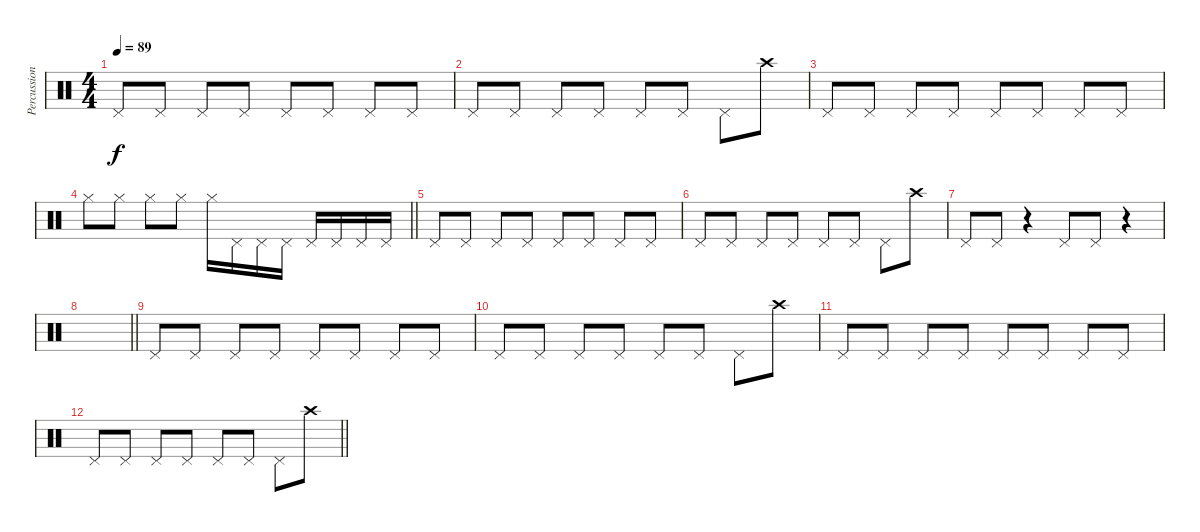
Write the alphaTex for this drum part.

\track ("Percussion" "Percussion") {instrument percussion}
\staff {score}
\articulation defaults
\ts (4 4)
\tempo 89
\clef neutral
\ks c "Pedal Hi-Hat (hit)".8{dy f} "Pedal Hi-Hat (hit)".8 "Pedal Hi-Hat (hit)".8 "Pedal Hi-Hat (hit)".8 "Pedal Hi-Hat (hit)".8 "Pedal Hi-Hat (hit)".8 "Pedal Hi-Hat (hit)".8 "Pedal Hi-Hat (hit)".8
|
"Pedal Hi-Hat (hit)".8 "Pedal Hi-Hat (hit)".8 "Pedal Hi-Hat (hit)".8 "Pedal Hi-Hat (hit)".8 "Pedal Hi-Hat (hit)".8 "Pedal Hi-Hat (hit)".8 "Pedal Hi-Hat (hit)".8 "Crash high (hit)".8 |
"Pedal Hi-Hat (hit)".8 "Pedal Hi-Hat (hit)".8 "Pedal Hi-Hat (hit)".8 "Pedal Hi-Hat (hit)".8 "Pedal Hi-Hat (hit)".8 "Pedal Hi-Hat (hit)".8 "Pedal Hi-Hat (hit)".8 "Pedal Hi-Hat (hit)".8 |
\barLineRight lightlight "Hi-Hat (closed)".8 "Hi-Hat (closed)".8 "Hi-Hat (closed)".8 "Hi-Hat (closed)".8 "Hi-Hat (closed)".16 "Pedal Hi-Hat (hit)".16 "Pedal Hi-Hat (hit)".16 "Pedal Hi-Hat (hit)".16 "Pedal Hi-Hat (hit)".16 "Pedal Hi-Hat (hit)".16 "Pedal Hi-Hat (hit)".16 "Pedal Hi-Hat (hit)".16
|
"Pedal Hi-Hat (hit)".8 "Pedal Hi-Hat (hit)".8 "Pedal Hi-Hat (hit)".8 "Pedal Hi-Hat (hit)".8 "Pedal Hi-Hat (hit)".8 "Pedal Hi-Hat (hit)".8 "Pedal Hi-Hat (hit)".8 "Pedal Hi-Hat (hit)".8 |
"Pedal Hi-Hat (hit)".8 "Pedal Hi-Hat (hit)".8 "Pedal Hi-Hat (hit)".8 "Pedal Hi-Hat (hit)".8 "Pedal Hi-Hat (hit)".8 "Pedal Hi-Hat (hit)".8 "Pedal Hi-Hat (hit)".8 "Crash high (hit)".8 |
"Pedal Hi-Hat (hit)".8 "Pedal Hi-Hat (hit)".8 r.4 "Pedal Hi-Hat (hit)".8 "Pedal Hi-Hat (hit)".8 r.4 |
\barLineRight lightlight
|
"Pedal Hi-Hat (hit)".8 "Pedal Hi-Hat (hit)".8 "Pedal Hi-Hat (hit)".8 "Pedal Hi-Hat (hit)".8 "Pedal Hi-Hat (hit)".8 "Pedal Hi-Hat (hit)".8 "Pedal Hi-Hat (hit)".8 "Pedal Hi-Hat (hit)".8 |
"Pedal Hi-Hat (hit)".8 "Pedal Hi-Hat (hit)".8 "Pedal Hi-Hat (hit)".8 "Pedal Hi-Hat (hit)".8 "Pedal Hi-Hat (hit)".8 "Pedal Hi-Hat (hit)".8 "Pedal Hi-Hat (hit)".8 "Crash high (hit)".8 |
"Pedal Hi-Hat (hit)".8 "Pedal Hi-Hat (hit)".8 "Pedal Hi-Hat (hit)".8 "Pedal Hi-Hat (hit)".8 "Pedal Hi-Hat (hit)".8 "Pedal Hi-Hat (hit)".8 "Pedal Hi-Hat (hit)".8 "Pedal Hi-Hat (hit)".8 |
\barLineRight lightlight "Pedal Hi-Hat (hit)".8 "Pedal Hi-Hat (hit)".8 "Pedal Hi-Hat (hit)".8 "Pedal Hi-Hat (hit)".8 "Pedal Hi-Hat (hit)".8 "Pedal Hi-Hat (hit)".8 "Pedal Hi-Hat (hit)".8 "Crash high (hit)".8
